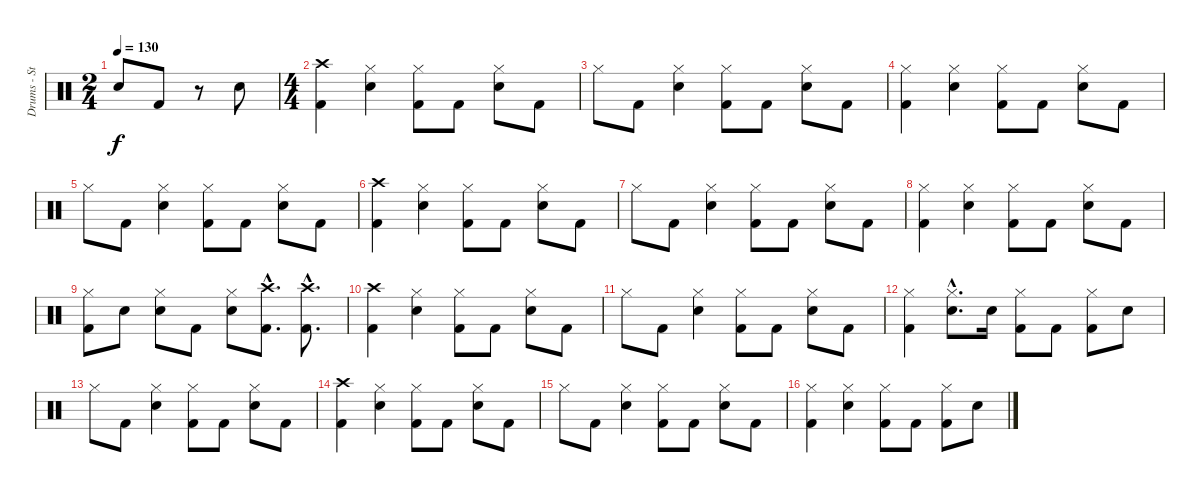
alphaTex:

\track ("Drums - Steven" "Drums - St") {instrument percussion}
\staff {score}
\articulation defaults
\ts (2 4)
\tempo 130
\clef neutral
\ks c "Electric Snare (hit)".8{dy f} "Kick (hit) 2".8
r.8 "Electric Snare (hit)".8 |
\ts (4 4)
("Kick (hit) 2" "Crash high (hit)").4 ("Electric Snare (hit)" "Hi-Hat (closed)").4 ("Kick (hit) 2" "Hi-Hat (closed)").8 "Kick (hit) 2".8 ("Electric Snare (hit)" "Hi-Hat (closed)").8 "Kick (hit) 2".8 |
"Hi-Hat (closed)".8 "Kick (hit) 2".8 ("Electric Snare (hit)" "Hi-Hat (closed)").4 ("Kick (hit) 2" "Hi-Hat (closed)").8 "Kick (hit) 2".8 ("Electric Snare (hit)" "Hi-Hat (closed)").8 "Kick (hit) 2".8 |
("Kick (hit) 2" "Hi-Hat (closed)").4 ("Electric Snare (hit)" "Hi-Hat (closed)").4 ("Kick (hit) 2" "Hi-Hat (closed)").8 "Kick (hit) 2".8 ("Electric Snare (hit)" "Hi-Hat (closed)").8 "Kick (hit) 2".8 |
"Hi-Hat (closed)".8 "Kick (hit) 2".8 ("Electric Snare (hit)" "Hi-Hat (closed)").4 ("Kick (hit) 2" "Hi-Hat (closed)").8 "Kick (hit) 2".8 ("Electric Snare (hit)" "Hi-Hat (closed)").8 "Kick (hit) 2".8 |
("Kick (hit) 2" "Crash high (hit)").4 ("Electric Snare (hit)" "Hi-Hat (closed)").4 ("Kick (hit) 2" "Hi-Hat (closed)").8 "Kick (hit) 2".8 ("Electric Snare (hit)" "Hi-Hat (closed)").8 "Kick (hit) 2".8 |
"Hi-Hat (closed)".8 "Kick (hit) 2".8 ("Electric Snare (hit)" "Hi-Hat (closed)").4 ("Kick (hit) 2" "Hi-Hat (closed)").8 "Kick (hit) 2".8 ("Electric Snare (hit)" "Hi-Hat (closed)").8 "Kick (hit) 2".8 |
("Kick (hit) 2" "Hi-Hat (closed)").4 ("Electric Snare (hit)" "Hi-Hat (closed)").4 ("Kick (hit) 2" "Hi-Hat (closed)").8 "Kick (hit) 2".8 ("Electric Snare (hit)" "Hi-Hat (closed)").8 "Kick (hit) 2".8 |
("Kick (hit) 2" "Hi-Hat (closed)").8 "Electric Snare (hit)".8 ("Electric Snare (hit)" "Hi-Hat (closed)").8 "Kick (hit) 2".8 ("Electric Snare (hit)" "Hi-Hat (closed)").8 ("Kick (hit) 2"{hac} "Crash high (hit)"{hac}).8{d} ("Kick (hit) 2"{hac} "Crash high (hit)"{hac}).8{d} |
("Kick (hit) 2" "Crash high (hit)").4 ("Electric Snare (hit)" "Hi-Hat (closed)").4 ("Kick (hit) 2" "Hi-Hat (closed)").8 "Kick (hit) 2".8 ("Electric Snare (hit)" "Hi-Hat (closed)").8 "Kick (hit) 2".8 |
"Hi-Hat (closed)".8 "Kick (hit) 2".8 ("Electric Snare (hit)" "Hi-Hat (closed)").4 ("Kick (hit) 2" "Hi-Hat (closed)").8 "Kick (hit) 2".8 ("Electric Snare (hit)" "Hi-Hat (closed)").8 "Kick (hit) 2".8 |
("Kick (hit) 2" "Hi-Hat (closed)").4 ("Electric Snare (hit)"{hac} "Hi-Hat (closed)"{hac}).8{d} "Electric Snare (hit)".16 ("Kick (hit) 2" "Hi-Hat (closed)").8 "Kick (hit) 2".8 ("Kick (hit) 2" "Hi-Hat (closed)").8 "Electric Snare (hit)".8 |
"Hi-Hat (closed)".8 "Kick (hit) 2".8 ("Electric Snare (hit)" "Hi-Hat (closed)").4 ("Kick (hit) 2" "Hi-Hat (closed)").8 "Kick (hit) 2".8 ("Electric Snare (hit)" "Hi-Hat (closed)").8 "Kick (hit) 2".8 |
("Kick (hit) 2" "Crash high (hit)").4 ("Electric Snare (hit)" "Hi-Hat (closed)").4 ("Kick (hit) 2" "Hi-Hat (closed)").8 "Kick (hit) 2".8 ("Electric Snare (hit)" "Hi-Hat (closed)").8 "Kick (hit) 2".8 |
"Hi-Hat (closed)".8 "Kick (hit) 2".8 ("Electric Snare (hit)" "Hi-Hat (closed)").4 ("Kick (hit) 2" "Hi-Hat (closed)").8 "Kick (hit) 2".8 ("Electric Snare (hit)" "Hi-Hat (closed)").8 "Kick (hit) 2".8 |
("Kick (hit) 2" "Hi-Hat (closed)").4 ("Electric Snare (hit)" "Hi-Hat (closed)").4 ("Kick (hit) 2" "Hi-Hat (closed)").8 "Kick (hit) 2".8 ("Kick (hit) 2" "Hi-Hat (closed)").8 "Electric Snare (hit)".8
